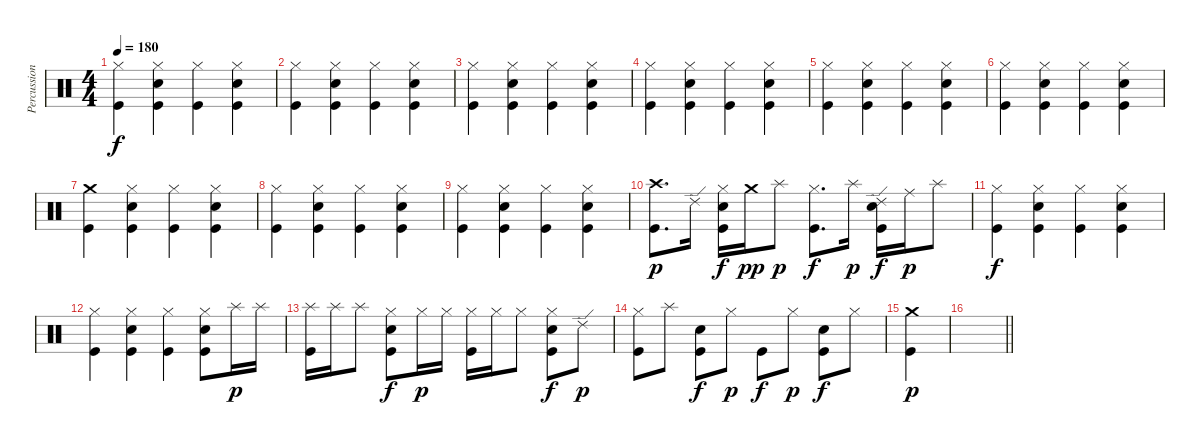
\track ("Percussion" "Percussion") {instrument percussion}
\staff {score}
\articulation defaults
\ts (4 4)
\tempo 180
\clef neutral
\ks c
("Hi-Hat (closed)" "Kick (hit)").4{dy f} ("Hi-Hat (closed)" "Snare (hit) 2" "Kick (hit)").4 ("Hi-Hat (closed)" "Kick (hit)").4 ("Hi-Hat (closed)" "Snare (hit) 2" "Kick (hit)").4 |
("Hi-Hat (closed)" "Kick (hit)").4 ("Hi-Hat (closed)" "Snare (hit) 2" "Kick (hit)").4 ("Hi-Hat (closed)" "Kick (hit)").4 ("Hi-Hat (closed)" "Snare (hit) 2" "Kick (hit)").4 |
("Hi-Hat (closed)" "Kick (hit)").4 ("Hi-Hat (closed)" "Snare (hit) 2" "Kick (hit)").4 ("Hi-Hat (closed)" "Kick (hit)").4 ("Hi-Hat (closed)" "Snare (hit) 2" "Kick (hit)").4 |
("Hi-Hat (closed)" "Kick (hit)").4 ("Hi-Hat (closed)" "Snare (hit) 2" "Kick (hit)").4 ("Hi-Hat (closed)" "Kick (hit)").4 ("Hi-Hat (closed)" "Snare (hit) 2" "Kick (hit)").4 |
("Hi-Hat (closed)" "Kick (hit)").4 ("Hi-Hat (closed)" "Snare (hit) 2" "Kick (hit)").4 ("Hi-Hat (closed)" "Kick (hit)").4 ("Hi-Hat (closed)" "Snare (hit) 2" "Kick (hit)").4 |
("Hi-Hat (closed)" "Kick (hit)").4 ("Hi-Hat (closed)" "Snare (hit) 2" "Kick (hit)").4 ("Hi-Hat (closed)" "Kick (hit)").4 ("Hi-Hat (closed)" "Snare (hit) 2" "Kick (hit)").4 |
("Crash medium (hit)" "Kick (hit)").4 ("Hi-Hat (closed)" "Snare (hit) 2" "Kick (hit)").4 ("Hi-Hat (closed)" "Kick (hit)").4 ("Hi-Hat (closed)" "Snare (hit) 2" "Kick (hit)").4 |
("Hi-Hat (closed)" "Kick (hit)").4 ("Hi-Hat (closed)" "Snare (hit) 2" "Kick (hit)").4 ("Hi-Hat (closed)" "Kick (hit)").4 ("Hi-Hat (closed)" "Snare (hit) 2" "Kick (hit)").4 |
("Hi-Hat (closed)" "Kick (hit)").4 ("Hi-Hat (closed)" "Snare (hit) 2" "Kick (hit)").4 ("Hi-Hat (closed)" "Kick (hit)").4 ("Hi-Hat (closed)" "Snare (hit) 2" "Kick (hit)").4 |
("Crash high (hit)" "Kick (hit)").8{d dy p} "Ride (edge) 2".16 ("Hi-Hat (closed)" "Snare (hit) 2" "Kick (hit)").16{dy f} "Crash medium (hit)".16{dy pp} "Splash (hit)".8{dy p} ("Hi-Hat (closed)" "Kick (hit)").8{d dy f} "Splash (hit)".16{dy p} ("Ride (edge) 2" "Snare (hit) 2" "Kick (hit)").16{dy f} "Ride (middle)".16{dy p} "Splash (hit)".8 |
("Hi-Hat (closed)" "Kick (hit)").4{dy f} ("Hi-Hat (closed)" "Snare (hit) 2" "Kick (hit)").4 ("Hi-Hat (closed)" "Kick (hit)").4 ("Hi-Hat (closed)" "Snare (hit) 2" "Kick (hit)").4 |
("Hi-Hat (closed)" "Kick (hit)").4 ("Hi-Hat (closed)" "Snare (hit) 2" "Kick (hit)").4 ("Hi-Hat (closed)" "Kick (hit)").4 ("Hi-Hat (closed)" "Snare (hit) 2" "Kick (hit)").8 "Splash (hit)".16{dy p} "Splash (hit)".16 |
("Splash (hit)" "Kick (hit)").16 "Splash (hit)".16 "Splash (hit)".8 ("Hi-Hat (closed)" "Snare (hit) 2" "Kick (hit)").8{dy f} "Hi-Hat (closed)".16{dy p} "Hi-Hat (closed)".16 ("Hi-Hat (closed)" "Kick (hit)").16 "Hi-Hat (closed)".16 "Hi-Hat (closed)".8 ("Hi-Hat (closed)" "Snare (hit) 2" "Kick (hit)").8{dy f} "Ride (edge) 2".8{dy p} |
("Hi-Hat (closed)" "Kick (hit)").8 "Splash (hit)".8 ("Snare (hit) 2" "Kick (hit)").8{dy f} "Hi-Hat (closed)".8{dy p} "Kick (hit)".8{dy f} "Hi-Hat (closed)".8{dy p} ("Snare (hit) 2" "Kick (hit)").8{dy f} "Hi-Hat (closed)".8 |
("Crash medium (hit)" "Kick (hit)").4{dy p} |
\barLineRight lightlight
